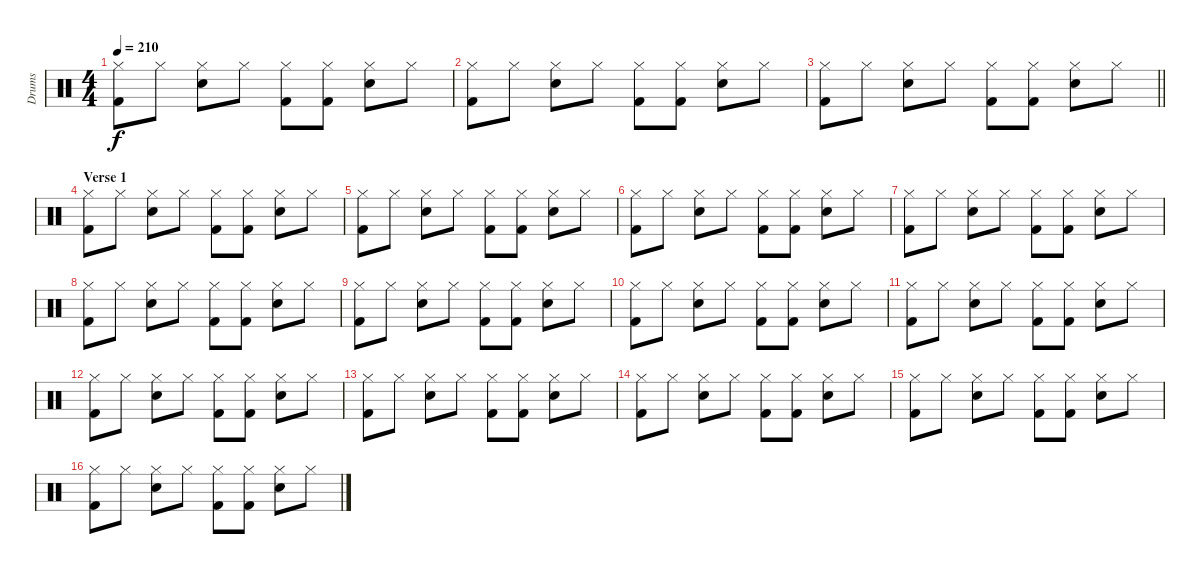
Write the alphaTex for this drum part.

\track ("Drums" "Drums") {instrument percussion}
\staff {score}
\articulation defaults
\ts (4 4)
\tempo 210
\clef neutral
\ks c
("Hi-Hat (closed)" "Kick (hit) 2").8{dy f} "Hi-Hat (closed)".8 ("Hi-Hat (closed)" "Electric Snare (hit)").8 "Hi-Hat (closed)".8 ("Hi-Hat (closed)" "Kick (hit) 2").8 ("Hi-Hat (closed)" "Kick (hit) 2").8 ("Hi-Hat (closed)" "Electric Snare (hit)").8 "Hi-Hat (closed)".8 |
("Hi-Hat (closed)" "Kick (hit) 2").8 "Hi-Hat (closed)".8 ("Hi-Hat (closed)" "Electric Snare (hit)").8 "Hi-Hat (closed)".8 ("Hi-Hat (closed)" "Kick (hit) 2").8 ("Hi-Hat (closed)" "Kick (hit) 2").8 ("Hi-Hat (closed)" "Electric Snare (hit)").8 "Hi-Hat (closed)".8 |
\barLineRight lightlight
("Hi-Hat (closed)" "Kick (hit) 2").8 "Hi-Hat (closed)".8 ("Hi-Hat (closed)" "Electric Snare (hit)").8 "Hi-Hat (closed)".8 ("Hi-Hat (closed)" "Kick (hit) 2").8 ("Hi-Hat (closed)" "Kick (hit) 2").8 ("Hi-Hat (closed)" "Electric Snare (hit)").8 "Hi-Hat (closed)".8 |
\section ("" "Verse 1")
("Hi-Hat (closed)" "Kick (hit) 2").8 "Hi-Hat (closed)".8 ("Hi-Hat (closed)" "Electric Snare (hit)").8 "Hi-Hat (closed)".8 ("Hi-Hat (closed)" "Kick (hit) 2").8 ("Hi-Hat (closed)" "Kick (hit) 2").8 ("Hi-Hat (closed)" "Electric Snare (hit)").8 "Hi-Hat (closed)".8 |
("Hi-Hat (closed)" "Kick (hit) 2").8 "Hi-Hat (closed)".8 ("Hi-Hat (closed)" "Electric Snare (hit)").8 "Hi-Hat (closed)".8 ("Hi-Hat (closed)" "Kick (hit) 2").8 ("Hi-Hat (closed)" "Kick (hit) 2").8 ("Hi-Hat (closed)" "Electric Snare (hit)").8 "Hi-Hat (closed)".8 |
("Hi-Hat (closed)" "Kick (hit) 2").8 "Hi-Hat (closed)".8 ("Hi-Hat (closed)" "Electric Snare (hit)").8 "Hi-Hat (closed)".8 ("Hi-Hat (closed)" "Kick (hit) 2").8 ("Hi-Hat (closed)" "Kick (hit) 2").8 ("Hi-Hat (closed)" "Electric Snare (hit)").8 "Hi-Hat (closed)".8 |
("Hi-Hat (closed)" "Kick (hit) 2").8 "Hi-Hat (closed)".8 ("Hi-Hat (closed)" "Electric Snare (hit)").8 "Hi-Hat (closed)".8 ("Hi-Hat (closed)" "Kick (hit) 2").8 ("Hi-Hat (closed)" "Kick (hit) 2").8 ("Hi-Hat (closed)" "Electric Snare (hit)").8 "Hi-Hat (closed)".8 |
("Hi-Hat (closed)" "Kick (hit) 2").8 "Hi-Hat (closed)".8 ("Hi-Hat (closed)" "Electric Snare (hit)").8 "Hi-Hat (closed)".8 ("Hi-Hat (closed)" "Kick (hit) 2").8 ("Hi-Hat (closed)" "Kick (hit) 2").8 ("Hi-Hat (closed)" "Electric Snare (hit)").8 "Hi-Hat (closed)".8 |
("Hi-Hat (closed)" "Kick (hit) 2").8 "Hi-Hat (closed)".8 ("Hi-Hat (closed)" "Electric Snare (hit)").8 "Hi-Hat (closed)".8 ("Hi-Hat (closed)" "Kick (hit) 2").8 ("Hi-Hat (closed)" "Kick (hit) 2").8 ("Hi-Hat (closed)" "Electric Snare (hit)").8 "Hi-Hat (closed)".8 |
("Hi-Hat (closed)" "Kick (hit) 2").8 "Hi-Hat (closed)".8 ("Hi-Hat (closed)" "Electric Snare (hit)").8 "Hi-Hat (closed)".8 ("Hi-Hat (closed)" "Kick (hit) 2").8 ("Hi-Hat (closed)" "Kick (hit) 2").8 ("Hi-Hat (closed)" "Electric Snare (hit)").8 "Hi-Hat (closed)".8 |
("Hi-Hat (closed)" "Kick (hit) 2").8 "Hi-Hat (closed)".8 ("Hi-Hat (closed)" "Electric Snare (hit)").8 "Hi-Hat (closed)".8 ("Hi-Hat (closed)" "Kick (hit) 2").8 ("Hi-Hat (closed)" "Kick (hit) 2").8 ("Hi-Hat (closed)" "Electric Snare (hit)").8 "Hi-Hat (closed)".8 |
("Hi-Hat (closed)" "Kick (hit) 2").8 "Hi-Hat (closed)".8 ("Hi-Hat (closed)" "Electric Snare (hit)").8 "Hi-Hat (closed)".8 ("Hi-Hat (closed)" "Kick (hit) 2").8 ("Hi-Hat (closed)" "Kick (hit) 2").8 ("Hi-Hat (closed)" "Electric Snare (hit)").8 "Hi-Hat (closed)".8 |
("Hi-Hat (closed)" "Kick (hit) 2").8 "Hi-Hat (closed)".8 ("Hi-Hat (closed)" "Electric Snare (hit)").8 "Hi-Hat (closed)".8 ("Hi-Hat (closed)" "Kick (hit) 2").8 ("Hi-Hat (closed)" "Kick (hit) 2").8 ("Hi-Hat (closed)" "Electric Snare (hit)").8 "Hi-Hat (closed)".8 |
("Hi-Hat (closed)" "Kick (hit) 2").8 "Hi-Hat (closed)".8 ("Hi-Hat (closed)" "Electric Snare (hit)").8 "Hi-Hat (closed)".8 ("Hi-Hat (closed)" "Kick (hit) 2").8 ("Hi-Hat (closed)" "Kick (hit) 2").8 ("Hi-Hat (closed)" "Electric Snare (hit)").8 "Hi-Hat (closed)".8 |
("Hi-Hat (closed)" "Kick (hit) 2").8 "Hi-Hat (closed)".8 ("Hi-Hat (closed)" "Electric Snare (hit)").8 "Hi-Hat (closed)".8 ("Hi-Hat (closed)" "Kick (hit) 2").8 ("Hi-Hat (closed)" "Kick (hit) 2").8 ("Hi-Hat (closed)" "Electric Snare (hit)").8 "Hi-Hat (closed)".8 |
("Hi-Hat (closed)" "Kick (hit) 2").8 "Hi-Hat (closed)".8 ("Hi-Hat (closed)" "Electric Snare (hit)").8 "Hi-Hat (closed)".8 ("Hi-Hat (closed)" "Kick (hit) 2").8 ("Hi-Hat (closed)" "Kick (hit) 2").8 ("Hi-Hat (closed)" "Electric Snare (hit)").8 "Hi-Hat (closed)".8
